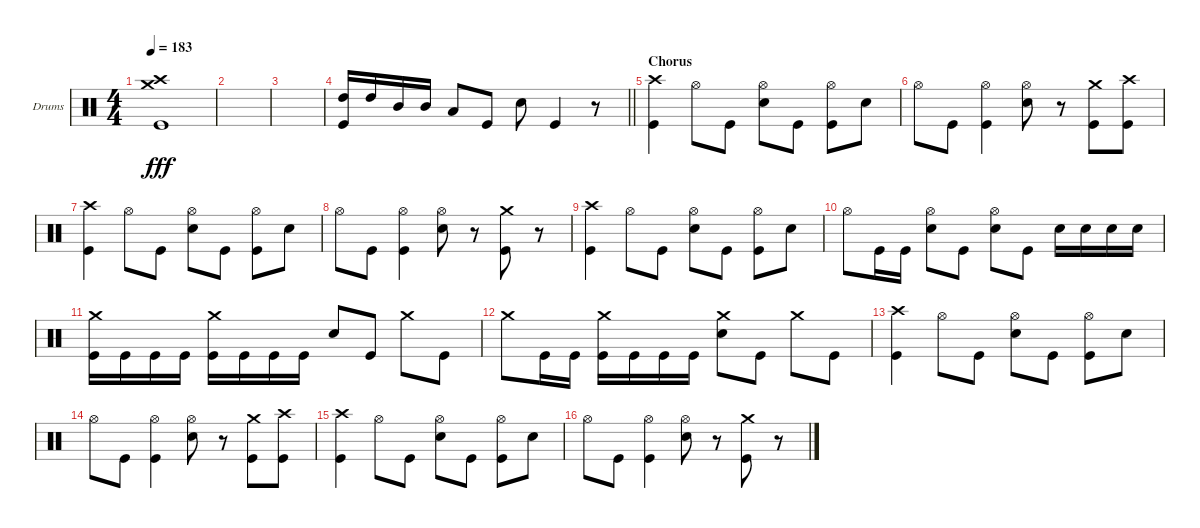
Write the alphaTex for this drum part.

\bracketExtendMode groupsimilarinstruments
\firstSystemTrackNameOrientation horizontal
\otherSystemsTrackNameOrientation horizontal
\track ("Drumkit" "Drums") {instrument percussion}
\staff {score}
\articulation defaults
\ts (4 4)
\tempo 183
\clef neutral
\scale
0.333333
\ks c
("Kick (hit)" "Crash medium (hit)" "Crash high (hit)").1{dy fff} |
\scale
0.333333 |
\scale
0.333333 |
\scale
0.333333
\barLineRight lightlight
("High Tom (hit)" "Kick (hit)").16 "High Tom (hit)".16 "Mid Tom (hit)".16 "Mid Tom (hit)".16 "Low Tom (hit)".8 "Kick (hit)".8 "Snare (hit) 2".8 "Kick (hit)".4 r.8 |
\section ("" "Chorus")
\scale
0.333333 ("Kick (hit)" "Crash high (hit)").4 "Hi-Hat (open)".8 "Kick (hit)".8 ("Snare (hit) 2" "Hi-Hat (open)").8 "Kick (hit)".8 ("Kick (hit)" "Hi-Hat (open)").8 "Snare (hit) 2".8 |
\scale
0.333333 "Hi-Hat (open)".8 "Kick (hit)".8 ("Kick (hit)" "Hi-Hat (open)").4 ("Snare (hit) 2" "Hi-Hat (open)").8 r.8 ("Kick (hit)" "Crash medium (hit)").8 ("Kick (hit)" "Crash high (hit)").8 |
\scale
0.333333 ("Kick (hit)" "Crash high (hit)").4 "Hi-Hat (open)".8 "Kick (hit)".8 ("Snare (hit) 2" "Hi-Hat (open)").8 "Kick (hit)".8 ("Kick (hit)" "Hi-Hat (open)").8 "Snare (hit) 2".8 |
\scale
0.333333 "Hi-Hat (open)".8 "Kick (hit)".8 ("Kick (hit)" "Hi-Hat (open)").4 ("Snare (hit) 2" "Hi-Hat (open)").8 r.8 ("Kick (hit)" "Crash medium (hit)").8 r.8 |
\scale
0.333333 ("Kick (hit)" "Crash high (hit)").4 "Hi-Hat (open)".8 "Kick (hit)".8 ("Snare (hit) 2" "Hi-Hat (open)").8 "Kick (hit)".8 ("Kick (hit)" "Hi-Hat (open)").8 "Snare (hit) 2".8 |
\scale
0.333333 "Hi-Hat (open)".8 "Kick (hit)".16 "Kick (hit)".16 ("Snare (hit) 2" "Hi-Hat (open)").8 "Kick (hit)".8 ("Snare (hit) 2" "Hi-Hat (open)").8 "Kick (hit)".8 "Snare (hit) 2".16 "Snare (hit) 2".16 "Snare (hit) 2".16 "Snare (hit) 2".16 |
\scale
0.333333 ("Kick (hit)" "Crash medium (hit)").16 "Kick (hit)".16 "Kick (hit)".16 "Kick (hit)".16 ("Crash medium (hit)" "Kick (hit)").16 "Kick (hit)".16 "Kick (hit)".16 "Kick (hit)".16 "Snare (hit) 2".8 "Kick (hit)".8 "Crash medium (hit)".8 "Kick (hit)".8 |
\scale
0.333333 "Crash medium (hit)".8 "Kick (hit)".16 "Kick (hit)".16 ("Kick (hit)" "Crash medium (hit)").16 "Kick (hit)".16 "Kick (hit)".16 "Kick (hit)".16 ("Snare (hit) 2" "Crash medium (hit)").8 "Kick (hit)".8 "Crash medium (hit)".8 "Kick (hit)".8 |
\scale
0.333333 ("Kick (hit)" "Crash high (hit)").4 "Hi-Hat (open)".8 "Kick (hit)".8 ("Snare (hit) 2" "Hi-Hat (open)").8 "Kick (hit)".8 ("Kick (hit)" "Hi-Hat (open)").8 "Snare (hit) 2".8 |
\scale
0.333333 "Hi-Hat (open)".8 "Kick (hit)".8 ("Kick (hit)" "Hi-Hat (open)").4 ("Snare (hit) 2" "Hi-Hat (open)").8 r.8 ("Kick (hit)" "Crash medium (hit)").8 ("Kick (hit)" "Crash high (hit)").8 |
\scale
0.333333 ("Kick (hit)" "Crash high (hit)").4 "Hi-Hat (open)".8 "Kick (hit)".8 ("Snare (hit) 2" "Hi-Hat (open)").8 "Kick (hit)".8 ("Kick (hit)" "Hi-Hat (open)").8 "Snare (hit) 2".8 |
\scale
0.333333 "Hi-Hat (open)".8 "Kick (hit)".8 ("Kick (hit)" "Hi-Hat (open)").4 ("Snare (hit) 2" "Hi-Hat (open)").8 r.8 ("Kick (hit)" "Crash medium (hit)").8 r.8
